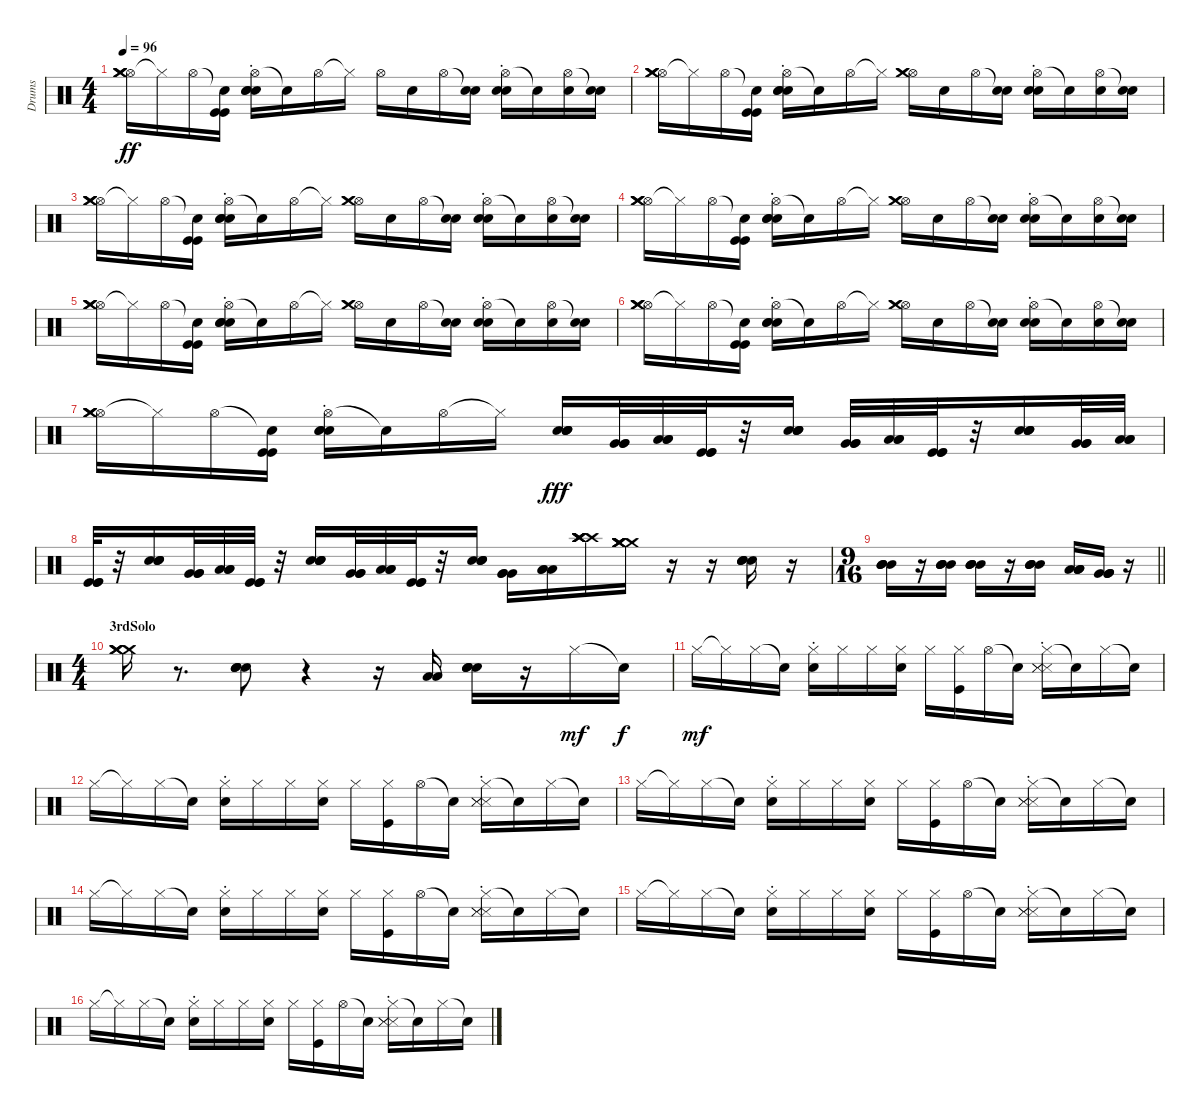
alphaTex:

\track ("Drums" "Drums") {instrument percussion}
\staff {score}
\articulation defaults
\ts (4 4)
\tempo 96
\clef neutral
\ks c
("Hi-Hat (open)" "Crash medium (hit)" "Crash medium (hit)" "Crash medium (hit)").16{dy ff} "Hi-Hat (closed)"{t}.16 "Hi-Hat (open)".16 ("Snare (hit)"{t} "Kick (hit)" "Kick (hit)").16 ("Hi-Hat (open)" "Snare (hit) 2"{st} "Snare (hit) 2" "Snare (hit) 2").16 "Snare (hit)"{t}.16 "Hi-Hat (open)".16 "Hi-Hat (closed)"{t}.16 "Hi-Hat (open)".16 "Snare (hit) 2".16 "Hi-Hat (open)".16 ("Snare (hit)"{t} "Snare (hit) 2").16 ("Hi-Hat (open)" "Snare (hit) 2"{st} "Snare (hit) 2").16 "Snare (hit)"{t}.16 ("Hi-Hat (open)" "Snare (hit) 2").16 ("Snare (hit)"{t} "Snare (hit) 2").16 |
("Hi-Hat (open)" "Crash medium (hit)" "Crash medium (hit)" "Crash medium (hit)").16 "Hi-Hat (closed)"{t}.16 "Hi-Hat (open)".16 ("Snare (hit)"{t} "Kick (hit)" "Kick (hit)").16 ("Hi-Hat (open)" "Snare (hit) 2"{st} "Snare (hit) 2" "Snare (hit) 2").16 "Snare (hit)"{t}.16 "Hi-Hat (open)".16 "Hi-Hat (closed)"{t}.16 ("Hi-Hat (open)" "Crash medium (hit)" "Crash medium (hit)").16 "Snare (hit) 2".16 "Hi-Hat (open)".16 ("Snare (hit)"{t} "Snare (hit) 2").16 ("Hi-Hat (open)" "Snare (hit) 2"{st} "Snare (hit) 2").16 "Snare (hit)"{t}.16 ("Hi-Hat (open)" "Snare (hit) 2").16 ("Snare (hit)"{t} "Snare (hit) 2").16 |
("Hi-Hat (open)" "Crash medium (hit)" "Crash medium (hit)" "Crash medium (hit)").16 "Hi-Hat (closed)"{t}.16 "Hi-Hat (open)".16 ("Snare (hit)"{t} "Kick (hit)" "Kick (hit)").16 ("Hi-Hat (open)" "Snare (hit) 2"{st} "Snare (hit) 2" "Snare (hit) 2").16 "Snare (hit)"{t}.16 "Hi-Hat (open)".16 "Hi-Hat (closed)"{t}.16 ("Hi-Hat (open)" "Crash medium (hit)" "Crash medium (hit)").16 "Snare (hit) 2".16 "Hi-Hat (open)".16 ("Snare (hit)"{t} "Snare (hit) 2").16 ("Hi-Hat (open)" "Snare (hit) 2"{st} "Snare (hit) 2").16 "Snare (hit)"{t}.16 ("Hi-Hat (open)" "Snare (hit) 2").16 ("Snare (hit)"{t} "Snare (hit) 2").16 |
("Hi-Hat (open)" "Crash medium (hit)" "Crash medium (hit)" "Crash medium (hit)").16 "Hi-Hat (closed)"{t}.16 "Hi-Hat (open)".16 ("Snare (hit)"{t} "Kick (hit)" "Kick (hit)").16 ("Hi-Hat (open)" "Snare (hit) 2"{st} "Snare (hit) 2" "Snare (hit) 2").16 "Snare (hit)"{t}.16 "Hi-Hat (open)".16 "Hi-Hat (closed)"{t}.16 ("Hi-Hat (open)" "Crash medium (hit)" "Crash medium (hit)").16 "Snare (hit) 2".16 "Hi-Hat (open)".16 ("Snare (hit)"{t} "Snare (hit) 2").16 ("Hi-Hat (open)" "Snare (hit) 2"{st} "Snare (hit) 2").16 "Snare (hit)"{t}.16 ("Hi-Hat (open)" "Snare (hit) 2").16 ("Snare (hit)"{t} "Snare (hit) 2").16 |
("Hi-Hat (open)" "Crash medium (hit)" "Crash medium (hit)" "Crash medium (hit)").16 "Hi-Hat (closed)"{t}.16 "Hi-Hat (open)".16 ("Snare (hit)"{t} "Kick (hit)" "Kick (hit)").16 ("Hi-Hat (open)" "Snare (hit) 2"{st} "Snare (hit) 2" "Snare (hit) 2").16 "Snare (hit)"{t}.16 "Hi-Hat (open)".16 "Hi-Hat (closed)"{t}.16 ("Hi-Hat (open)" "Crash medium (hit)" "Crash medium (hit)").16 "Snare (hit) 2".16 "Hi-Hat (open)".16 ("Snare (hit)"{t} "Snare (hit) 2").16 ("Hi-Hat (open)" "Snare (hit) 2"{st} "Snare (hit) 2").16 "Snare (hit)"{t}.16 ("Hi-Hat (open)" "Snare (hit) 2").16 ("Snare (hit)"{t} "Snare (hit) 2").16 |
("Hi-Hat (open)" "Crash medium (hit)" "Crash medium (hit)" "Crash medium (hit)").16 "Hi-Hat (closed)"{t}.16 "Hi-Hat (open)".16 ("Snare (hit)"{t} "Kick (hit)" "Kick (hit)").16 ("Hi-Hat (open)" "Snare (hit) 2"{st} "Snare (hit) 2" "Snare (hit) 2").16 "Snare (hit)"{t}.16 "Hi-Hat (open)".16 "Hi-Hat (closed)"{t}.16 ("Hi-Hat (open)" "Crash medium (hit)" "Crash medium (hit)").16 "Snare (hit) 2".16 "Hi-Hat (open)".16 ("Snare (hit)"{t} "Snare (hit) 2").16 ("Hi-Hat (open)" "Snare (hit) 2"{st} "Snare (hit) 2").16 "Snare (hit)"{t}.16 ("Hi-Hat (open)" "Snare (hit) 2").16 ("Snare (hit)"{t} "Snare (hit) 2").16 |
("Hi-Hat (open)" "Crash medium (hit)" "Crash medium (hit)" "Crash medium (hit)").16 "Hi-Hat (closed)"{t}.16 "Hi-Hat (open)".16 ("Snare (hit)"{t} "Kick (hit)" "Kick (hit)").16 ("Hi-Hat (open)" "Snare (hit) 2"{st} "Snare (hit) 2" "Snare (hit) 2").16 "Snare (hit)"{t}.16 "Hi-Hat (open)".16 "Hi-Hat (closed)"{t}.16 ("Snare (hit) 2" "Snare (hit) 2" "Snare (hit) 2" "Snare (hit) 2").16{dy fff} ("Very Low Tom (hit)" "Very Low Tom (hit)" "Very Low Tom (hit)").32 ("Low Floor Tom (hit)" "Low Floor Tom (hit)" "Low Floor Tom (hit)").32 ("Kick (hit)" "Kick (hit)" "Kick (hit)").32 r.32 ("Snare (hit) 2" "Snare (hit) 2" "Snare (hit) 2" "Snare (hit) 2").16 ("Very Low Tom (hit)" "Very Low Tom (hit)" "Very Low Tom (hit)").32 ("Low Floor Tom (hit)" "Low Floor Tom (hit)" "Low Floor Tom (hit)").32 ("Kick (hit)" "Kick (hit)" "Kick (hit)").32 r.32 ("Snare (hit) 2" "Snare (hit) 2" "Snare (hit) 2" "Snare (hit) 2").16 ("Very Low Tom (hit)" "Very Low Tom (hit)" "Very Low Tom (hit)").32 ("Low Floor Tom (hit)" "Low Floor Tom (hit)" "Low Floor Tom (hit)").32 |
("Kick (hit)" "Kick (hit)" "Kick (hit)").32 r.32 ("Snare (hit) 2" "Snare (hit) 2" "Snare (hit) 2" "Snare (hit) 2").16 ("Very Low Tom (hit)" "Very Low Tom (hit)" "Very Low Tom (hit)").32 ("Low Floor Tom (hit)" "Low Floor Tom (hit)" "Low Floor Tom (hit)").32 ("Kick (hit)" "Kick (hit)" "Kick (hit)").32 r.32 ("Snare (hit) 2" "Snare (hit) 2" "Snare (hit) 2" "Snare (hit) 2").16 ("Very Low Tom (hit)" "Very Low Tom (hit)" "Very Low Tom (hit)").32 ("Low Floor Tom (hit)" "Low Floor Tom (hit)" "Low Floor Tom (hit)").32 ("Kick (hit)" "Kick (hit)" "Kick (hit)").32 r.32 ("Snare (hit) 2" "Snare (hit) 2" "Snare (hit) 2" "Snare (hit) 2").16 ("Very Low Tom (hit)" "Very Low Tom (hit)" "Very Low Tom (hit)").16 ("Low Floor Tom (hit)" "Low Floor Tom (hit)" "Low Floor Tom (hit)").16 ("Crash high (hit)" "Crash high (hit)" "Crash high (hit)" "Crash high (hit)" "Crash high (hit)" "Crash high (hit)").16 ("Crash medium (hit)" "Crash medium (hit)" "Crash medium (hit)" "Crash medium (hit)" "Crash medium (hit)" "Crash medium (hit)").16 r.16 r.16 ("Snare (hit) 2" "Snare (hit) 2" "Snare (hit) 2" "Snare (hit) 2").16 r.16 |
\ts (9 16)
\barLineRight lightlight
("Mid Tom (hit)" "Mid Tom (hit)" "Mid Tom (hit)" "Mid Tom (hit)").16 r.16 ("Mid Tom (hit)" "Mid Tom (hit)" "Mid Tom (hit)" "Mid Tom (hit)").16 ("Mid Tom (hit)" "Mid Tom (hit)" "Mid Tom (hit)" "Mid Tom (hit)").16 r.16 ("Mid Tom (hit)" "Mid Tom (hit)" "Mid Tom (hit)" "Mid Tom (hit)").16 ("Low Tom (hit)" "Low Tom (hit)" "Low Tom (hit)" "Low Tom (hit)").16 ("Very Low Tom (hit)" "Very Low Tom (hit)" "Very Low Tom (hit)" "Very Low Tom (hit)").16 r.16 |
\ts (4 4)
\section ("" "3rdSolo")
("Crash medium (hit)" "Crash medium (hit)" "Crash medium (hit)" "Crash medium (hit)").16 r.8{d} ("Snare (hit) 2" "Snare (hit) 2" "Snare (hit) 2" "Snare (hit) 2").8 r.4 r.16 ("Low Tom (hit)" "Low Tom (hit)").16 ("Snare (hit) 2" "Snare (hit) 2" "Snare (hit) 2" "Snare (hit) 2").16 r.16 "Hi-Hat (closed)".16{dy mf} "Snare (hit)"{t}.16{dy f} |
"Hi-Hat (closed)".16{dy mf} "Hi-Hat (closed)"{t}.16 "Hi-Hat (closed)".16 "Snare (hit)"{t}.16 ("Hi-Hat (closed)" "Snare (hit) 2"{st}).16 "Hi-Hat (closed)".16 "Hi-Hat (closed)".16 ("Hi-Hat (closed)" "Snare (hit) 2").16 "Hi-Hat (closed)".16 ("Hi-Hat (closed)" "Kick (hit)").16 "Hi-Hat (open)".16 "Snare (hit)"{t}.16 ("Hi-Hat (closed)" "Snare (side stick) 3"{st} "Snare (side stick) 3" "Snare (side stick) 3").16 "Snare (hit)"{t}.16 "Hi-Hat (closed)".16 "Snare (hit)"{t}.16 |
"Hi-Hat (closed)".16 "Hi-Hat (closed)"{t}.16 "Hi-Hat (closed)".16 "Snare (hit)"{t}.16 ("Hi-Hat (closed)" "Snare (hit) 2"{st}).16 "Hi-Hat (closed)".16 "Hi-Hat (closed)".16 ("Hi-Hat (closed)" "Snare (hit) 2").16 "Hi-Hat (closed)".16 ("Hi-Hat (closed)" "Kick (hit)").16 "Hi-Hat (open)".16 "Snare (hit)"{t}.16 ("Hi-Hat (closed)" "Snare (side stick) 3"{st} "Snare (side stick) 3" "Snare (side stick) 3").16 "Snare (hit)"{t}.16 "Hi-Hat (closed)".16 "Snare (hit)"{t}.16 |
"Hi-Hat (closed)".16 "Hi-Hat (closed)"{t}.16 "Hi-Hat (closed)".16 "Snare (hit)"{t}.16 ("Hi-Hat (closed)" "Snare (hit) 2"{st}).16 "Hi-Hat (closed)".16 "Hi-Hat (closed)".16 ("Hi-Hat (closed)" "Snare (hit) 2").16 "Hi-Hat (closed)".16 ("Hi-Hat (closed)" "Kick (hit)").16 "Hi-Hat (open)".16 "Snare (hit)"{t}.16 ("Hi-Hat (closed)" "Snare (side stick) 3"{st} "Snare (side stick) 3" "Snare (side stick) 3").16 "Snare (hit)"{t}.16 "Hi-Hat (closed)".16 "Snare (hit)"{t}.16 |
"Hi-Hat (closed)".16 "Hi-Hat (closed)"{t}.16 "Hi-Hat (closed)".16 "Snare (hit)"{t}.16 ("Hi-Hat (closed)" "Snare (hit) 2"{st}).16 "Hi-Hat (closed)".16 "Hi-Hat (closed)".16 ("Hi-Hat (closed)" "Snare (hit) 2").16 "Hi-Hat (closed)".16 ("Hi-Hat (closed)" "Kick (hit)").16 "Hi-Hat (open)".16 "Snare (hit)"{t}.16 ("Hi-Hat (closed)" "Snare (side stick) 3"{st} "Snare (side stick) 3" "Snare (side stick) 3").16 "Snare (hit)"{t}.16 "Hi-Hat (closed)".16 "Snare (hit)"{t}.16 |
"Hi-Hat (closed)".16 "Hi-Hat (closed)"{t}.16 "Hi-Hat (closed)".16 "Snare (hit)"{t}.16 ("Hi-Hat (closed)" "Snare (hit) 2"{st}).16 "Hi-Hat (closed)".16 "Hi-Hat (closed)".16 ("Hi-Hat (closed)" "Snare (hit) 2").16 "Hi-Hat (closed)".16 ("Hi-Hat (closed)" "Kick (hit)").16 "Hi-Hat (open)".16 "Snare (hit)"{t}.16 ("Hi-Hat (closed)" "Snare (side stick) 3"{st} "Snare (side stick) 3" "Snare (side stick) 3").16 "Snare (hit)"{t}.16 "Hi-Hat (closed)".16 "Snare (hit)"{t}.16 |
"Hi-Hat (closed)".16 "Hi-Hat (closed)"{t}.16 "Hi-Hat (closed)".16 "Snare (hit)"{t}.16 ("Hi-Hat (closed)" "Snare (hit) 2"{st}).16 "Hi-Hat (closed)".16 "Hi-Hat (closed)".16 ("Hi-Hat (closed)" "Snare (hit) 2").16 "Hi-Hat (closed)".16 ("Hi-Hat (closed)" "Kick (hit)").16 "Hi-Hat (open)".16 "Snare (hit)"{t}.16 ("Hi-Hat (closed)" "Snare (side stick) 3"{st} "Snare (side stick) 3" "Snare (side stick) 3").16 "Snare (hit)"{t}.16 "Hi-Hat (closed)".16 "Snare (hit)"{t}.16
